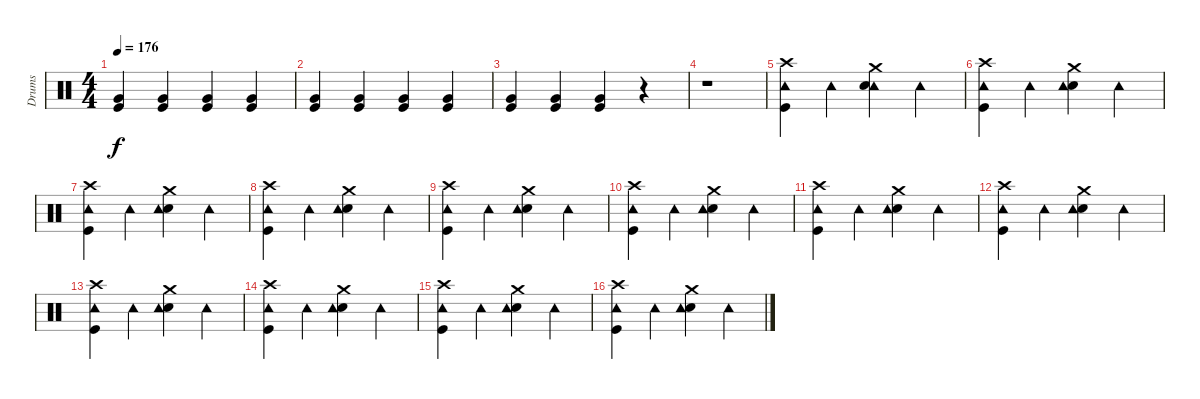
\track ("Drums" "Drums") {instrument percussion}
\staff {score}
\articulation defaults
\ts (4 4)
\tempo 176
\clef neutral
\ks c
("Very Low Tom (hit)" "Kick (hit)").4{dy f} ("Very Low Tom (hit)" "Kick (hit)").4 ("Very Low Tom (hit)" "Kick (hit)").4 ("Very Low Tom (hit)" "Kick (hit)").4 |
("Very Low Tom (hit)" "Kick (hit)").4 ("Very Low Tom (hit)" "Kick (hit)").4 ("Very Low Tom (hit)" "Kick (hit)").4 ("Very Low Tom (hit)" "Kick (hit)").4 |
("Very Low Tom (hit)" "Kick (hit)").4 ("Very Low Tom (hit)" "Kick (hit)").4 ("Very Low Tom (hit)" "Kick (hit)").4 r.4 |
r.1 |
("Tambourine (hit)" "Crash high (hit)" "Kick (hit)").4 "Tambourine (hit)".4 ("Tambourine (hit)" "Crash medium (hit)" "Electric Snare (hit)").4 "Tambourine (hit)".4 |
("Crash high (hit)" "Kick (hit)" "Tambourine (hit)").4 "Tambourine (hit)".4 ("Crash medium (hit)" "Electric Snare (hit)" "Tambourine (hit)").4 "Tambourine (hit)".4 |
("Crash high (hit)" "Kick (hit)" "Tambourine (hit)").4 "Tambourine (hit)".4 ("Crash medium (hit)" "Electric Snare (hit)" "Tambourine (hit)").4 "Tambourine (hit)".4 |
("Crash high (hit)" "Kick (hit)" "Tambourine (hit)").4 "Tambourine (hit)".4 ("Crash medium (hit)" "Electric Snare (hit)" "Tambourine (hit)").4 "Tambourine (hit)".4 |
("Crash high (hit)" "Kick (hit)" "Tambourine (hit)").4 "Tambourine (hit)".4 ("Crash medium (hit)" "Electric Snare (hit)" "Tambourine (hit)").4 "Tambourine (hit)".4 |
("Crash high (hit)" "Kick (hit)" "Tambourine (hit)").4 "Tambourine (hit)".4 ("Crash medium (hit)" "Electric Snare (hit)" "Tambourine (hit)").4 "Tambourine (hit)".4 |
("Crash high (hit)" "Kick (hit)" "Tambourine (hit)").4 "Tambourine (hit)".4 ("Crash medium (hit)" "Electric Snare (hit)" "Tambourine (hit)").4 "Tambourine (hit)".4 |
("Crash high (hit)" "Kick (hit)" "Tambourine (hit)").4 "Tambourine (hit)".4 ("Crash medium (hit)" "Electric Snare (hit)" "Tambourine (hit)").4 "Tambourine (hit)".4 |
("Crash high (hit)" "Kick (hit)" "Tambourine (hit)").4 "Tambourine (hit)".4 ("Crash medium (hit)" "Electric Snare (hit)" "Tambourine (hit)").4 "Tambourine (hit)".4 |
("Crash high (hit)" "Kick (hit)" "Tambourine (hit)").4 "Tambourine (hit)".4 ("Crash medium (hit)" "Electric Snare (hit)" "Tambourine (hit)").4 "Tambourine (hit)".4 |
("Crash high (hit)" "Kick (hit)" "Tambourine (hit)").4 "Tambourine (hit)".4 ("Crash medium (hit)" "Electric Snare (hit)" "Tambourine (hit)").4 "Tambourine (hit)".4 |
("Crash high (hit)" "Kick (hit)" "Tambourine (hit)").4 "Tambourine (hit)".4 ("Crash medium (hit)" "Electric Snare (hit)" "Tambourine (hit)").4 "Tambourine (hit)".4
